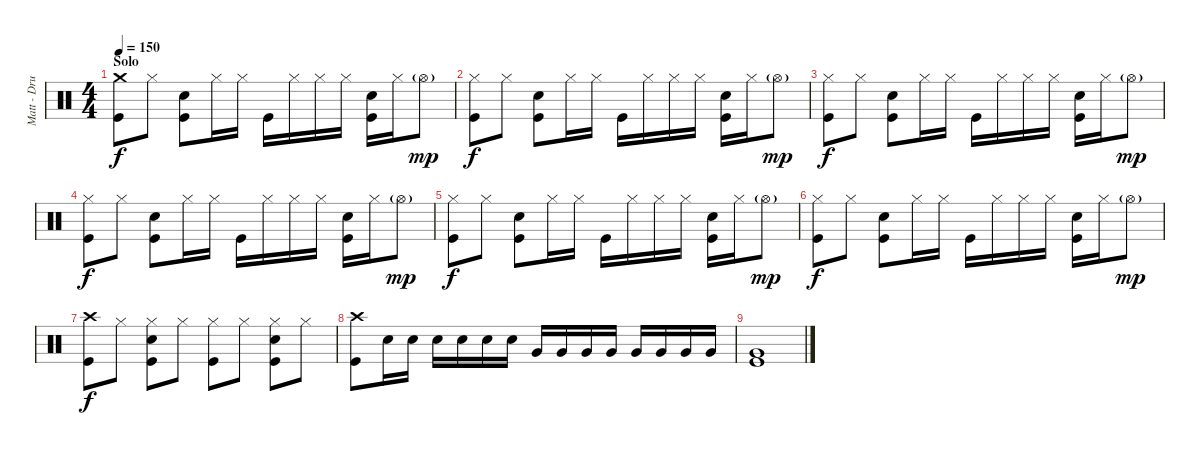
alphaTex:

\track ("Matt - Drums" "Matt - Dru") {instrument percussion}
\staff {score}
\articulation defaults
\ts (4 4)
\section ("" "Solo")
\tempo 150
\clef neutral
\ks c
("Crash medium (hit)" "Kick (hit)").8{dy f} "Hi-Hat (closed)".8 ("Electric Snare (hit)" "Kick (hit)").8 "Hi-Hat (closed)".16 "Hi-Hat (closed)".16 "Kick (hit)".16 "Hi-Hat (closed)".16 "Hi-Hat (closed)".16 "Hi-Hat (closed)".16 ("Electric Snare (hit)" "Kick (hit)").16 "Hi-Hat (closed)".16 "Hi-Hat (open)"{g}.8{dy mp} |
("Hi-Hat (closed)" "Kick (hit)").8{dy f} "Hi-Hat (closed)".8 ("Electric Snare (hit)" "Kick (hit)").8 "Hi-Hat (closed)".16 "Hi-Hat (closed)".16 "Kick (hit)".16 "Hi-Hat (closed)".16 "Hi-Hat (closed)".16 "Hi-Hat (closed)".16 ("Electric Snare (hit)" "Kick (hit)").16 "Hi-Hat (closed)".16 "Hi-Hat (open)"{g}.8{dy mp} |
("Hi-Hat (closed)" "Kick (hit)").8{dy f} "Hi-Hat (closed)".8 ("Electric Snare (hit)" "Kick (hit)").8 "Hi-Hat (closed)".16 "Hi-Hat (closed)".16 "Kick (hit)".16 "Hi-Hat (closed)".16 "Hi-Hat (closed)".16 "Hi-Hat (closed)".16 ("Electric Snare (hit)" "Kick (hit)").16 "Hi-Hat (closed)".16 "Hi-Hat (open)"{g}.8{dy mp} |
("Hi-Hat (closed)" "Kick (hit)").8{dy f} "Hi-Hat (closed)".8 ("Electric Snare (hit)" "Kick (hit)").8 "Hi-Hat (closed)".16 "Hi-Hat (closed)".16 "Kick (hit)".16 "Hi-Hat (closed)".16 "Hi-Hat (closed)".16 "Hi-Hat (closed)".16 ("Electric Snare (hit)" "Kick (hit)").16 "Hi-Hat (closed)".16 "Hi-Hat (open)"{g}.8{dy mp} |
("Hi-Hat (closed)" "Kick (hit)").8{dy f} "Hi-Hat (closed)".8 ("Electric Snare (hit)" "Kick (hit)").8 "Hi-Hat (closed)".16 "Hi-Hat (closed)".16 "Kick (hit)".16 "Hi-Hat (closed)".16 "Hi-Hat (closed)".16 "Hi-Hat (closed)".16 ("Electric Snare (hit)" "Kick (hit)").16 "Hi-Hat (closed)".16 "Hi-Hat (open)"{g}.8{dy mp} |
("Hi-Hat (closed)" "Kick (hit)").8{dy f} "Hi-Hat (closed)".8 ("Electric Snare (hit)" "Kick (hit)").8 "Hi-Hat (closed)".16 "Hi-Hat (closed)".16 "Kick (hit)".16 "Hi-Hat (closed)".16 "Hi-Hat (closed)".16 "Hi-Hat (closed)".16 ("Electric Snare (hit)" "Kick (hit)").16 "Hi-Hat (closed)".16 "Hi-Hat (open)"{g}.8{dy mp} |
("Crash high (hit)" "Kick (hit)").8{dy f} "Hi-Hat (closed)".8 ("Hi-Hat (closed)" "Electric Snare (hit)" "Kick (hit)").8 "Hi-Hat (closed)".8 ("Hi-Hat (closed)" "Kick (hit)").8 "Hi-Hat (closed)".8 ("Hi-Hat (closed)" "Electric Snare (hit)" "Kick (hit)").8 "Hi-Hat (closed)".8 |
("Crash high (hit)" "Kick (hit)").8 "Electric Snare (hit)".16 "Electric Snare (hit)".16 "Electric Snare (hit)".16 "Electric Snare (hit)".16 "Electric Snare (hit)".16 "Electric Snare (hit)".16 "Very Low Tom (hit)".16 "Very Low Tom (hit)".16 "Very Low Tom (hit)".16 "Very Low Tom (hit)".16 "Very Low Tom (hit)".16 "Very Low Tom (hit)".16 "Very Low Tom (hit)".16 "Very Low Tom (hit)".16 |
("Very Low Tom (hit)" "Kick (hit)").1
